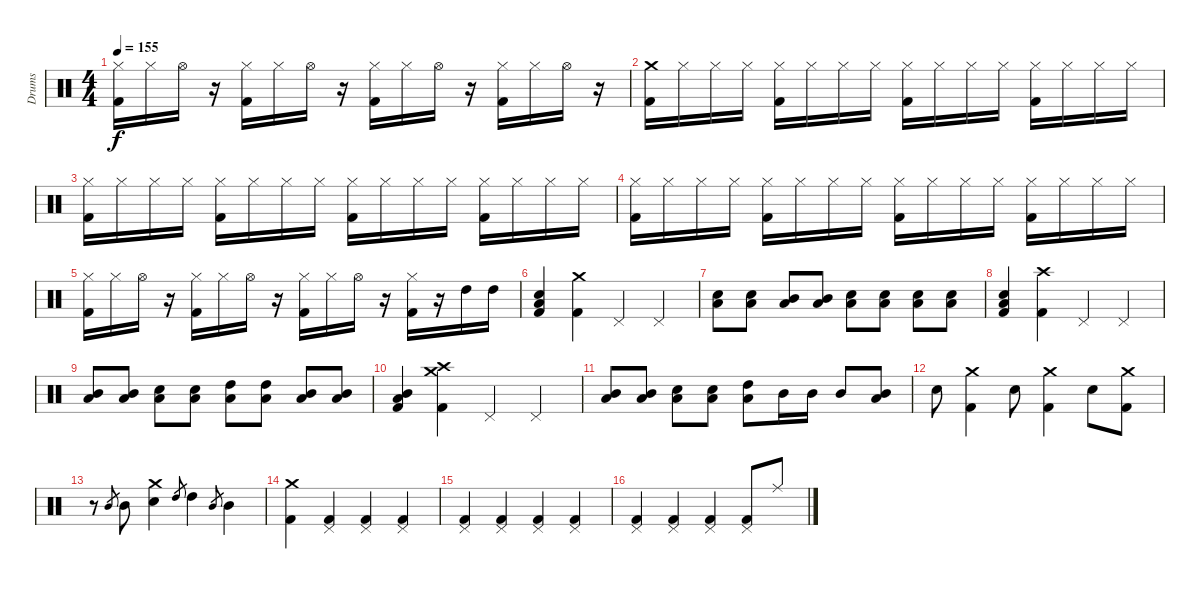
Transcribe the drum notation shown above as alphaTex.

\track ("Drums" "Drums") {instrument percussion}
\staff {score}
\articulation defaults
\ts (4 4)
\tempo 155
\clef neutral
\ks c
("Hi-Hat (closed)" "Kick (hit) 2").16{dy f} "Hi-Hat (closed)".16 "Hi-Hat (open)".16 r.16 ("Hi-Hat (closed)" "Kick (hit) 2").16 "Hi-Hat (closed)".16 "Hi-Hat (open)".16 r.16 ("Hi-Hat (closed)" "Kick (hit) 2").16 "Hi-Hat (closed)".16 "Hi-Hat (open)".16 r.16 ("Hi-Hat (closed)" "Kick (hit) 2").16 "Hi-Hat (closed)".16 "Hi-Hat (open)".16 r.16 |
("Crash medium (hit)" "Kick (hit) 2").16 "Hi-Hat (closed)".16 "Hi-Hat (closed)".16 "Hi-Hat (closed)".16 ("Hi-Hat (closed)" "Kick (hit) 2").16 "Hi-Hat (closed)".16 "Hi-Hat (closed)".16 "Hi-Hat (closed)".16 ("Hi-Hat (closed)" "Kick (hit) 2").16 "Hi-Hat (closed)".16 "Hi-Hat (closed)".16 "Hi-Hat (closed)".16 ("Hi-Hat (closed)" "Kick (hit) 2").16 "Hi-Hat (closed)".16 "Hi-Hat (closed)".16 "Hi-Hat (closed)".16 |
("Hi-Hat (closed)" "Kick (hit) 2").16 "Hi-Hat (closed)".16 "Hi-Hat (closed)".16 "Hi-Hat (closed)".16 ("Hi-Hat (closed)" "Kick (hit) 2").16 "Hi-Hat (closed)".16 "Hi-Hat (closed)".16 "Hi-Hat (closed)".16 ("Hi-Hat (closed)" "Kick (hit) 2").16 "Hi-Hat (closed)".16 "Hi-Hat (closed)".16 "Hi-Hat (closed)".16 ("Hi-Hat (closed)" "Kick (hit) 2").16 "Hi-Hat (closed)".16 "Hi-Hat (closed)".16 "Hi-Hat (closed)".16 |
("Hi-Hat (closed)" "Kick (hit) 2").16 "Hi-Hat (closed)".16 "Hi-Hat (closed)".16 "Hi-Hat (closed)".16 ("Hi-Hat (closed)" "Kick (hit) 2").16 "Hi-Hat (closed)".16 "Hi-Hat (closed)".16 "Hi-Hat (closed)".16 ("Hi-Hat (closed)" "Kick (hit) 2").16 "Hi-Hat (closed)".16 "Hi-Hat (closed)".16 "Hi-Hat (closed)".16 ("Hi-Hat (closed)" "Kick (hit) 2").16 "Hi-Hat (closed)".16 "Hi-Hat (closed)".16 "Hi-Hat (closed)".16 |
("Hi-Hat (closed)" "Kick (hit) 2").16 "Hi-Hat (closed)".16 "Hi-Hat (open)".16 r.16 ("Hi-Hat (closed)" "Kick (hit) 2").16 "Hi-Hat (closed)".16 "Hi-Hat (open)".16 r.16 ("Hi-Hat (closed)" "Kick (hit) 2").16 "Hi-Hat (closed)".16 "Hi-Hat (open)".16 r.16 ("Hi-Hat (closed)" "Kick (hit) 2").16 r.16 "High Tom (hit)".16 "High Tom (hit)".16 |
("Kick (hit) 2" "Electric Snare (hit)" "Low Tom (hit)").4 ("Crash medium (hit)" "Kick (hit) 2").4 "Pedal Hi-Hat (hit)".4 "Pedal Hi-Hat (hit)".4 |
("Electric Snare (hit)" "Low Tom (hit)").8 ("Electric Snare (hit)" "Low Tom (hit)").8 ("Low Tom (hit)" "Mid Tom (hit)").8 ("Low Tom (hit)" "Mid Tom (hit)").8 ("Electric Snare (hit)" "Low Tom (hit)").8 ("Electric Snare (hit)" "Low Tom (hit)").8 ("Electric Snare (hit)" "Low Tom (hit)").8 ("Electric Snare (hit)" "Low Tom (hit)").8 |
("Kick (hit) 2" "Electric Snare (hit)" "Low Tom (hit)").4 ("Crash high (hit)" "Kick (hit) 2").4 "Pedal Hi-Hat (hit)".4 "Pedal Hi-Hat (hit)".4 |
("Low Tom (hit)" "Mid Tom (hit)").8 ("Low Tom (hit)" "Mid Tom (hit)").8 ("Electric Snare (hit)" "Low Tom (hit)").8 ("Electric Snare (hit)" "Low Tom (hit)").8 ("Low Tom (hit)" "High Tom (hit)").8 ("Low Tom (hit)" "High Tom (hit)").8 ("Low Tom (hit)" "Mid Tom (hit)").8 ("Low Tom (hit)" "Mid Tom (hit)").8 |
("Kick (hit) 2" "Low Tom (hit)" "Mid Tom (hit)").4 ("Crash medium (hit)" "Kick (hit) 2" "Crash high (hit)").4 "Pedal Hi-Hat (hit)".4 "Pedal Hi-Hat (hit)".4 |
("Low Tom (hit)" "Mid Tom (hit)").8 ("Low Tom (hit)" "Mid Tom (hit)").8 ("Electric Snare (hit)" "Low Tom (hit)").8 ("Electric Snare (hit)" "Low Tom (hit)").8 ("Low Tom (hit)" "High Tom (hit)").8 "Mid Tom (hit)".16 "Mid Tom (hit)".16 "Mid Tom (hit)".8 ("Low Tom (hit)" "Mid Tom (hit)").8 |
"Electric Snare (hit)".8 ("Crash medium (hit)" "Kick (hit) 2").4 "Electric Snare (hit)".8 ("Crash medium (hit)" "Kick (hit) 2").4 "Electric Snare (hit)".8 ("Crash medium (hit)" "Kick (hit) 2").8 |
r.8 "Mid Tom (hit)".8{gr} "Mid Tom (hit)".8 ("Crash medium (hit)" "Electric Snare (hit)").4 "High Tom (hit)".8{gr} "High Tom (hit)".4 "Mid Tom (hit)".8{gr} "Mid Tom (hit)".4 |
("Crash medium (hit)" "Kick (hit) 2").4 ("Pedal Hi-Hat (hit)" "Kick (hit) 2").4 ("Pedal Hi-Hat (hit)" "Kick (hit) 2").4 ("Pedal Hi-Hat (hit)" "Kick (hit) 2").4 |
("Pedal Hi-Hat (hit)" "Kick (hit) 2").4 ("Pedal Hi-Hat (hit)" "Kick (hit) 2").4 ("Pedal Hi-Hat (hit)" "Kick (hit) 2").4 ("Pedal Hi-Hat (hit)" "Kick (hit) 2").4 |
("Pedal Hi-Hat (hit)" "Kick (hit) 2").4 ("Pedal Hi-Hat (hit)" "Kick (hit) 2").4 ("Pedal Hi-Hat (hit)" "Kick (hit) 2").4 ("Pedal Hi-Hat (hit)" "Kick (hit) 2").8 "Ride (middle)".8
